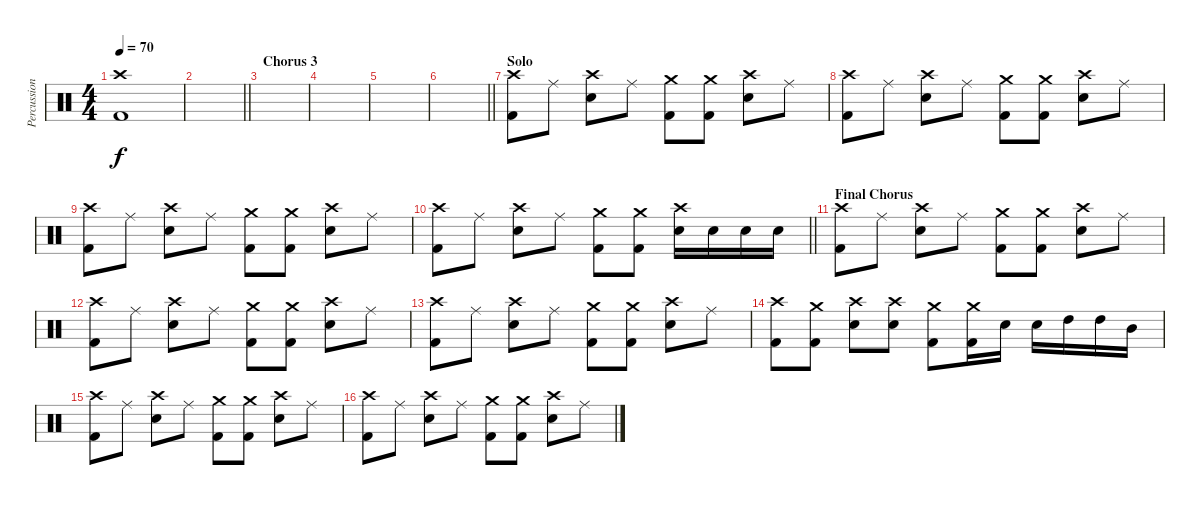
\track ("Percussion" "Percussion") {instrument percussion}
\staff {score}
\articulation defaults
\ts (4 4)
\tempo 70
\clef neutral
\ks c
("Crash high (hit)" "Kick (hit) 2").1{dy f} |
\barLineRight lightlight
|
\section ("" "Chorus 3")
|
|
|
\barLineRight lightlight
|
\section ("" "Solo")
("Crash high (hit)" "Kick (hit) 2").8 "Ride (middle)".8 ("Crash high (hit)" "Snare (hit) 2").8 "Ride (middle)".8 ("Crash medium (hit)" "Kick (hit) 2").8 ("Crash medium (hit)" "Kick (hit) 2").8 ("Crash high (hit)" "Snare (hit) 2").8 "Ride (middle)".8 |
("Crash high (hit)" "Kick (hit) 2").8 "Ride (middle)".8 ("Crash high (hit)" "Snare (hit) 2").8 "Ride (middle)".8 ("Crash medium (hit)" "Kick (hit) 2").8 ("Crash medium (hit)" "Kick (hit) 2").8 ("Crash high (hit)" "Snare (hit) 2").8 "Ride (middle)".8 |
("Crash high (hit)" "Kick (hit) 2").8 "Ride (middle)".8 ("Crash high (hit)" "Snare (hit) 2").8 "Ride (middle)".8 ("Crash medium (hit)" "Kick (hit) 2").8 ("Crash medium (hit)" "Kick (hit) 2").8 ("Crash high (hit)" "Snare (hit) 2").8 "Ride (middle)".8 |
\barLineRight lightlight
("Crash high (hit)" "Kick (hit) 2").8 "Ride (middle)".8 ("Crash high (hit)" "Snare (hit) 2").8 "Ride (middle)".8 ("Crash medium (hit)" "Kick (hit) 2").8 ("Crash medium (hit)" "Kick (hit) 2").8 ("Crash high (hit)" "Snare (hit) 2").16 "Snare (hit) 2".16 "Snare (hit) 2".16 "Snare (hit) 2".16 |
\section ("" "Final Chorus")
("Crash high (hit)" "Kick (hit) 2").8 "Ride (middle)".8 ("Crash high (hit)" "Snare (hit) 2").8 "Ride (middle)".8 ("Crash medium (hit)" "Kick (hit) 2").8 ("Crash medium (hit)" "Kick (hit) 2").8 ("Crash high (hit)" "Snare (hit) 2").8 "Ride (middle)".8 |
("Crash high (hit)" "Kick (hit) 2").8 "Ride (middle)".8 ("Crash high (hit)" "Snare (hit) 2").8 "Ride (middle)".8 ("Crash medium (hit)" "Kick (hit) 2").8 ("Crash medium (hit)" "Kick (hit) 2").8 ("Crash high (hit)" "Snare (hit) 2").8 "Ride (middle)".8 |
("Crash high (hit)" "Kick (hit) 2").8 "Ride (middle)".8 ("Crash high (hit)" "Snare (hit) 2").8 "Ride (middle)".8 ("Crash medium (hit)" "Kick (hit) 2").8 ("Crash medium (hit)" "Kick (hit) 2").8 ("Crash high (hit)" "Snare (hit) 2").8 "Ride (middle)".8 |
("Crash high (hit)" "Kick (hit) 2").8 ("Crash medium (hit)" "Kick (hit) 2").8 ("Crash high (hit)" "Snare (hit) 2").8 ("Crash high (hit)" "Snare (hit) 2").8 ("Crash medium (hit)" "Kick (hit) 2").8 ("Crash medium (hit)" "Kick (hit) 2").16 "Snare (hit) 2".16 "Snare (hit) 2".16 "High Tom (hit)".16 "High Tom (hit)".16 "Mid Tom (hit)".16 |
("Crash high (hit)" "Kick (hit) 2").8 "Ride (middle)".8 ("Crash high (hit)" "Snare (hit) 2").8 "Ride (middle)".8 ("Crash medium (hit)" "Kick (hit) 2").8 ("Crash medium (hit)" "Kick (hit) 2").8 ("Crash high (hit)" "Snare (hit) 2").8 "Ride (middle)".8 |
("Crash high (hit)" "Kick (hit) 2").8 "Ride (middle)".8 ("Crash high (hit)" "Snare (hit) 2").8 "Ride (middle)".8 ("Crash medium (hit)" "Kick (hit) 2").8 ("Crash medium (hit)" "Kick (hit) 2").8 ("Crash high (hit)" "Snare (hit) 2").8 "Ride (middle)".8
